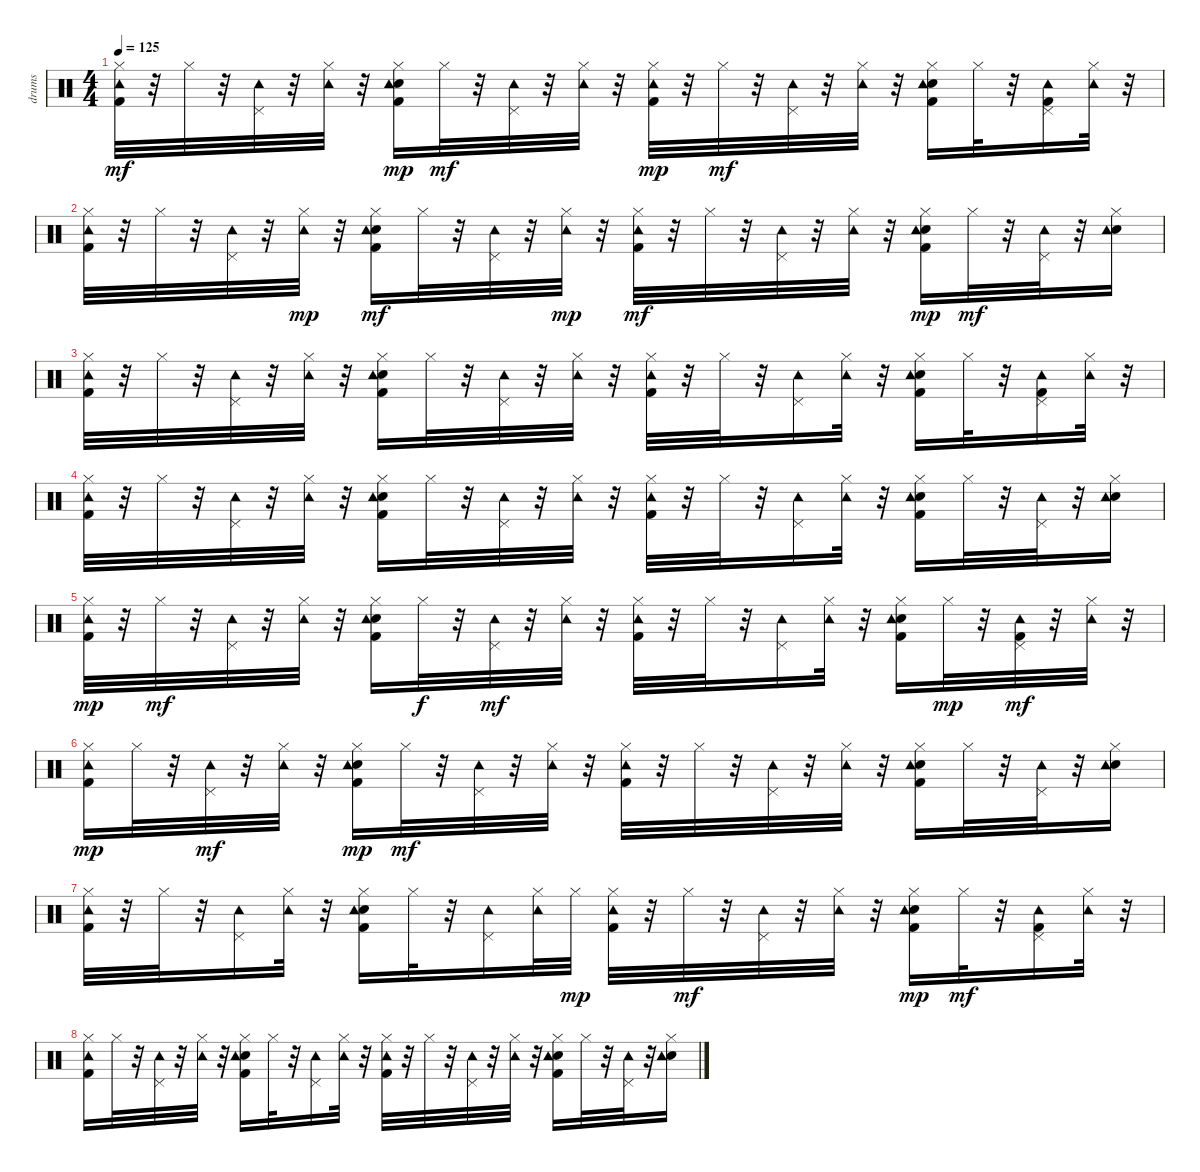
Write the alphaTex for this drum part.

\track ("drums   " "drums   ") {instrument percussion}
\staff {score}
\articulation defaults
\ts (4 4)
\tempo 125
\clef neutral
\ks c
("Kick (hit) 2" "Hi-Hat (closed)" "Tambourine (hit)").32{dy mf} r.32 "Hi-Hat (closed)".32 r.32 ("Pedal Hi-Hat (hit)" "Tambourine (hit)").32 r.32 ("Hi-Hat (closed)" "Tambourine (hit)").32 r.32 ("Kick (hit) 2" "Snare (hit) 2" "Hi-Hat (closed)" "Tambourine (hit)").16{dy mp} "Hi-Hat (closed)".32{dy mf} r.32 ("Pedal Hi-Hat (hit)" "Tambourine (hit)").32 r.32 ("Hi-Hat (closed)" "Tambourine (hit)").32 r.32 ("Kick (hit) 2" "Hi-Hat (closed)" "Tambourine (hit)").32{dy mp} r.32 "Hi-Hat (closed)".32{dy mf} r.32 ("Pedal Hi-Hat (hit)" "Tambourine (hit)").32 r.32 ("Hi-Hat (closed)" "Tambourine (hit)").32 r.32 ("Kick (hit) 2" "Snare (hit) 2" "Hi-Hat (closed)" "Tambourine (hit)").16 "Hi-Hat (closed)".32 r.32 ("Kick (hit) 2" "Pedal Hi-Hat (hit)" "Tambourine (hit)").16 ("Hi-Hat (closed)" "Tambourine (hit)").32 r.32 |
("Kick (hit) 2" "Hi-Hat (closed)" "Tambourine (hit)").32 r.32 "Hi-Hat (closed)".32 r.32 ("Pedal Hi-Hat (hit)" "Tambourine (hit)").32 r.32 ("Hi-Hat (closed)" "Tambourine (hit)").32{dy mp} r.32 ("Kick (hit) 2" "Snare (hit) 2" "Hi-Hat (closed)" "Tambourine (hit)").16{dy mf} "Hi-Hat (closed)".32 r.32 ("Pedal Hi-Hat (hit)" "Tambourine (hit)").32 r.32 ("Hi-Hat (closed)" "Tambourine (hit)").32{dy mp} r.32 ("Kick (hit) 2" "Hi-Hat (closed)" "Tambourine (hit)").32{dy mf} r.32 "Hi-Hat (closed)".32 r.32 ("Pedal Hi-Hat (hit)" "Tambourine (hit)").32 r.32 ("Hi-Hat (closed)" "Tambourine (hit)").32 r.32 ("Kick (hit) 2" "Snare (hit) 2" "Hi-Hat (closed)" "Tambourine (hit)").16{dy mp} "Hi-Hat (closed)".32{dy mf} r.32 ("Pedal Hi-Hat (hit)" "Tambourine (hit)").32 r.32 ("Snare (hit) 2" "Hi-Hat (closed)" "Tambourine (hit)").16 |
("Kick (hit) 2" "Hi-Hat (closed)" "Tambourine (hit)").32 r.32 "Hi-Hat (closed)".32 r.32 ("Pedal Hi-Hat (hit)" "Tambourine (hit)").32 r.32 ("Hi-Hat (closed)" "Tambourine (hit)").32 r.32 ("Kick (hit) 2" "Snare (hit) 2" "Hi-Hat (closed)" "Tambourine (hit)").16 "Hi-Hat (closed)".32 r.32 ("Pedal Hi-Hat (hit)" "Tambourine (hit)").32 r.32 ("Hi-Hat (closed)" "Tambourine (hit)").32 r.32 ("Kick (hit) 2" "Hi-Hat (closed)" "Tambourine (hit)").32 r.32 "Hi-Hat (closed)".32 r.32 ("Pedal Hi-Hat (hit)" "Tambourine (hit)").16 ("Hi-Hat (closed)" "Tambourine (hit)").32 r.32 ("Kick (hit) 2" "Snare (hit) 2" "Hi-Hat (closed)" "Tambourine (hit)").16 "Hi-Hat (closed)".32 r.32 ("Kick (hit) 2" "Pedal Hi-Hat (hit)" "Tambourine (hit)").16 ("Hi-Hat (closed)" "Tambourine (hit)").32 r.32 |
("Kick (hit) 2" "Hi-Hat (closed)" "Tambourine (hit)").32 r.32 "Hi-Hat (closed)".32 r.32 ("Pedal Hi-Hat (hit)" "Tambourine (hit)").32 r.32 ("Hi-Hat (closed)" "Tambourine (hit)").32 r.32 ("Kick (hit) 2" "Snare (hit) 2" "Hi-Hat (closed)" "Tambourine (hit)").16 "Hi-Hat (closed)".32 r.32 ("Pedal Hi-Hat (hit)" "Tambourine (hit)").32 r.32 ("Hi-Hat (closed)" "Tambourine (hit)").32 r.32 ("Kick (hit) 2" "Hi-Hat (closed)" "Tambourine (hit)").32 r.32 "Hi-Hat (closed)".32 r.32 ("Pedal Hi-Hat (hit)" "Tambourine (hit)").16 ("Hi-Hat (closed)" "Tambourine (hit)").32 r.32 ("Kick (hit) 2" "Snare (hit) 2" "Hi-Hat (closed)" "Tambourine (hit)").16 "Hi-Hat (closed)".32 r.32 ("Pedal Hi-Hat (hit)" "Tambourine (hit)").32 r.32 ("Snare (hit) 2" "Hi-Hat (closed)" "Tambourine (hit)").16 |
("Kick (hit) 2" "Hi-Hat (closed)" "Tambourine (hit)").32{dy mp} r.32 "Hi-Hat (closed)".32{dy mf} r.32 ("Pedal Hi-Hat (hit)" "Tambourine (hit)").32 r.32 ("Hi-Hat (closed)" "Tambourine (hit)").32 r.32 ("Kick (hit) 2" "Snare (hit) 2" "Hi-Hat (closed)" "Tambourine (hit)").16 "Hi-Hat (closed)".32{dy f} r.32 ("Pedal Hi-Hat (hit)" "Tambourine (hit)").32{dy mf} r.32 ("Hi-Hat (closed)" "Tambourine (hit)").32 r.32 ("Kick (hit) 2" "Hi-Hat (closed)" "Tambourine (hit)").32 r.32 "Hi-Hat (closed)".32 r.32 ("Pedal Hi-Hat (hit)" "Tambourine (hit)").16 ("Hi-Hat (closed)" "Tambourine (hit)").32 r.32 ("Kick (hit) 2" "Snare (hit) 2" "Hi-Hat (closed)" "Tambourine (hit)").16 "Hi-Hat (closed)".32{dy mp} r.32 ("Kick (hit) 2" "Pedal Hi-Hat (hit)" "Tambourine (hit)").32{dy mf} r.32 ("Hi-Hat (closed)" "Tambourine (hit)").32 r.32 |
("Kick (hit) 2" "Hi-Hat (closed)" "Tambourine (hit)").16{dy mp} "Hi-Hat (closed)".32 r.32 ("Pedal Hi-Hat (hit)" "Tambourine (hit)").32{dy mf} r.32 ("Hi-Hat (closed)" "Tambourine (hit)").32 r.32 ("Kick (hit) 2" "Snare (hit) 2" "Hi-Hat (closed)" "Tambourine (hit)").16{dy mp} "Hi-Hat (closed)".32{dy mf} r.32 ("Pedal Hi-Hat (hit)" "Tambourine (hit)").32 r.32 ("Hi-Hat (closed)" "Tambourine (hit)").32 r.32 ("Kick (hit) 2" "Hi-Hat (closed)" "Tambourine (hit)").32 r.32 "Hi-Hat (closed)".32 r.32 ("Pedal Hi-Hat (hit)" "Tambourine (hit)").32 r.32 ("Hi-Hat (closed)" "Tambourine (hit)").32 r.32 ("Kick (hit) 2" "Snare (hit) 2" "Hi-Hat (closed)" "Tambourine (hit)").16 "Hi-Hat (closed)".32 r.32 ("Pedal Hi-Hat (hit)" "Tambourine (hit)").32 r.32 ("Snare (hit) 2" "Hi-Hat (closed)" "Tambourine (hit)").16 |
("Kick (hit) 2" "Hi-Hat (closed)" "Tambourine (hit)").32 r.32 "Hi-Hat (closed)".32 r.32 ("Pedal Hi-Hat (hit)" "Tambourine (hit)").16 ("Hi-Hat (closed)" "Tambourine (hit)").32 r.32 ("Kick (hit) 2" "Snare (hit) 2" "Hi-Hat (closed)" "Tambourine (hit)").16 "Hi-Hat (closed)".32 r.32 ("Pedal Hi-Hat (hit)" "Tambourine (hit)").16 ("Hi-Hat (closed)" "Tambourine (hit)").32 "Hi-Hat (closed)".32{dy mp} ("Kick (hit) 2" "Hi-Hat (closed)" "Tambourine (hit)").32 r.32 "Hi-Hat (closed)".32{dy mf} r.32 ("Pedal Hi-Hat (hit)" "Tambourine (hit)").32 r.32 ("Hi-Hat (closed)" "Tambourine (hit)").32 r.32 ("Kick (hit) 2" "Snare (hit) 2" "Hi-Hat (closed)" "Tambourine (hit)").16{dy mp} "Hi-Hat (closed)".32{dy mf} r.32 ("Kick (hit) 2" "Pedal Hi-Hat (hit)" "Tambourine (hit)").16 ("Hi-Hat (closed)" "Tambourine (hit)").32 r.32 |
("Kick (hit) 2" "Hi-Hat (closed)" "Tambourine (hit)").16 "Hi-Hat (closed)".32 r.32 ("Pedal Hi-Hat (hit)" "Tambourine (hit)").32 r.32 ("Hi-Hat (closed)" "Tambourine (hit)").32 r.32 ("Kick (hit) 2" "Snare (hit) 2" "Hi-Hat (closed)" "Tambourine (hit)").16 "Hi-Hat (closed)".32 r.32 ("Pedal Hi-Hat (hit)" "Tambourine (hit)").16 ("Hi-Hat (closed)" "Tambourine (hit)").32 r.32 ("Kick (hit) 2" "Hi-Hat (closed)" "Tambourine (hit)").32 r.32 "Hi-Hat (closed)".32 r.32 ("Pedal Hi-Hat (hit)" "Tambourine (hit)").32 r.32 ("Hi-Hat (closed)" "Tambourine (hit)").32 r.32 ("Kick (hit) 2" "Snare (hit) 2" "Hi-Hat (closed)" "Tambourine (hit)").16 "Hi-Hat (closed)".32 r.32 ("Pedal Hi-Hat (hit)" "Tambourine (hit)").32 r.32 ("Snare (hit) 2" "Hi-Hat (closed)" "Tambourine (hit)").16
